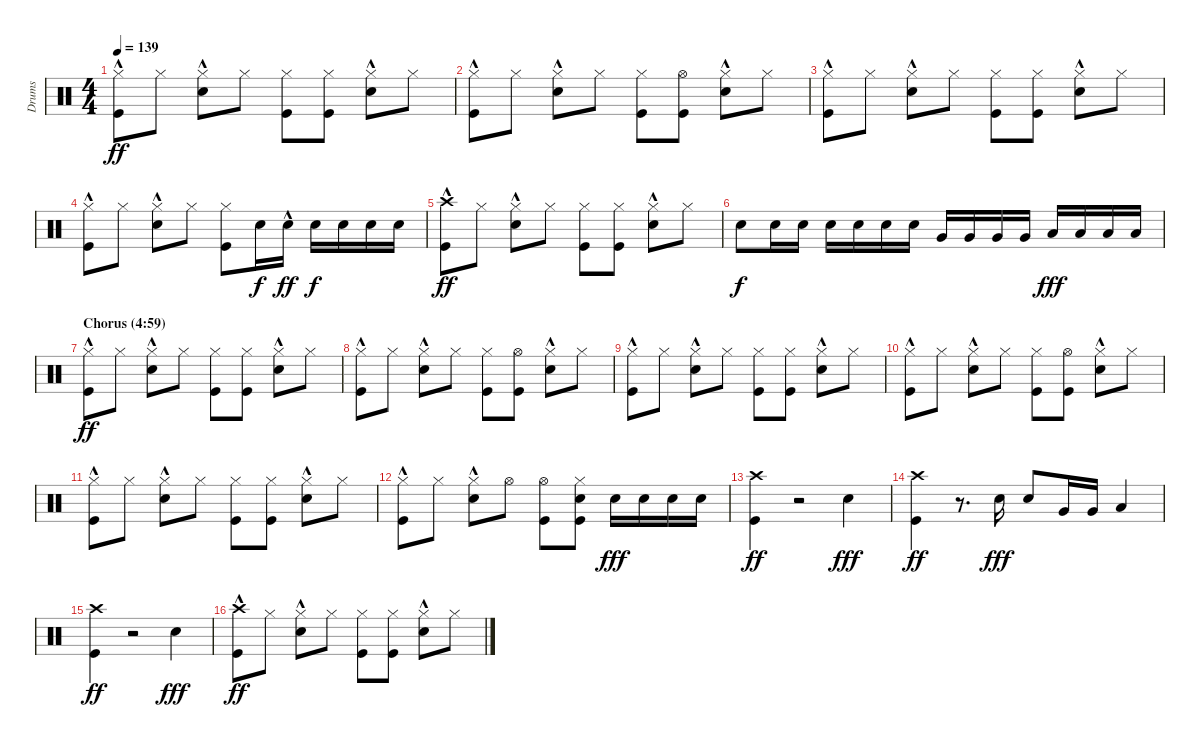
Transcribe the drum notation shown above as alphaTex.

\track ("Drums" "Drums") {instrument percussion}
\staff {score}
\articulation defaults
\ts (4 4)
\tempo 139
\clef neutral
\ks c
("Hi-Hat (closed)" "Kick (hit)"{hac}).8{dy ff} "Hi-Hat (closed)".8 ("Hi-Hat (closed)" "Snare (hit) 2"{hac}).8 "Hi-Hat (closed)".8 ("Hi-Hat (closed)" "Kick (hit)").8 ("Hi-Hat (closed)" "Kick (hit)").8 ("Hi-Hat (closed)" "Snare (hit) 2"{hac}).8 "Hi-Hat (closed)".8 |
("Hi-Hat (closed)" "Kick (hit)"{hac}).8 "Hi-Hat (closed)".8 ("Hi-Hat (closed)" "Snare (hit) 2"{hac}).8 "Hi-Hat (closed)".8 ("Hi-Hat (closed)" "Kick (hit)").8 ("Hi-Hat (open)" "Kick (hit)").8 ("Hi-Hat (closed)" "Snare (hit) 2"{hac}).8 "Hi-Hat (closed)".8 |
("Hi-Hat (closed)" "Kick (hit)"{hac}).8 "Hi-Hat (closed)".8 ("Hi-Hat (closed)" "Snare (hit) 2"{hac}).8 "Hi-Hat (closed)".8 ("Hi-Hat (closed)" "Kick (hit)").8 ("Hi-Hat (closed)" "Kick (hit)").8 ("Hi-Hat (closed)" "Snare (hit) 2"{hac}).8 "Hi-Hat (closed)".8 |
("Hi-Hat (closed)" "Kick (hit)"{hac}).8 "Hi-Hat (closed)".8 ("Hi-Hat (closed)" "Snare (hit) 2"{hac}).8 "Hi-Hat (closed)".8 ("Hi-Hat (closed)" "Kick (hit)").8 "Snare (hit) 2".16{dy f} "Snare (hit) 2"{hac}.16{dy ff} "Snare (hit) 2".16{dy f} "Snare (hit) 2".16 "Snare (hit) 2".16 "Snare (hit) 2".16 |
("Crash high (hit)" "Kick (hit)"{hac}).8{dy ff} "Hi-Hat (closed)".8 ("Hi-Hat (closed)" "Snare (hit) 2"{hac}).8 "Hi-Hat (closed)".8 ("Hi-Hat (closed)" "Kick (hit)").8 ("Hi-Hat (closed)" "Kick (hit)").8 ("Hi-Hat (closed)" "Snare (hit) 2"{hac}).8 "Hi-Hat (closed)".8 |
"Snare (hit) 2".8{dy f} "Snare (hit) 2".16 "Snare (hit) 2".16 "Snare (hit) 2".16 "Snare (hit) 2".16 "Snare (hit) 2".16 "Snare (hit) 2".16 "Very Low Tom (hit)".16 "Very Low Tom (hit)".16 "Very Low Tom (hit)".16 "Very Low Tom (hit)".16 "Low Floor Tom (hit)".16{dy fff} "Low Floor Tom (hit)".16 "Low Floor Tom (hit)".16 "Low Floor Tom (hit)".16 |
\section ("" "Chorus (4:59)")
("Hi-Hat (closed)" "Kick (hit)"{hac}).8{dy ff} "Hi-Hat (closed)".8 ("Hi-Hat (closed)" "Snare (hit) 2"{hac}).8 "Hi-Hat (closed)".8 ("Hi-Hat (closed)" "Kick (hit)").8 ("Hi-Hat (closed)" "Kick (hit)").8 ("Hi-Hat (closed)" "Snare (hit) 2"{hac}).8 "Hi-Hat (closed)".8 |
("Hi-Hat (closed)" "Kick (hit)"{hac}).8 "Hi-Hat (closed)".8 ("Hi-Hat (closed)" "Snare (hit) 2"{hac}).8 "Hi-Hat (closed)".8 ("Hi-Hat (closed)" "Kick (hit)").8 ("Hi-Hat (open)" "Kick (hit)").8 ("Hi-Hat (closed)" "Snare (hit) 2"{hac}).8 "Hi-Hat (closed)".8 |
("Hi-Hat (closed)" "Kick (hit)"{hac}).8 "Hi-Hat (closed)".8 ("Hi-Hat (closed)" "Snare (hit) 2"{hac}).8 "Hi-Hat (closed)".8 ("Hi-Hat (closed)" "Kick (hit)").8 ("Hi-Hat (closed)" "Kick (hit)").8 ("Hi-Hat (closed)" "Snare (hit) 2"{hac}).8 "Hi-Hat (closed)".8 |
("Hi-Hat (closed)" "Kick (hit)"{hac}).8 "Hi-Hat (closed)".8 ("Hi-Hat (closed)" "Snare (hit) 2"{hac}).8 "Hi-Hat (closed)".8 ("Hi-Hat (closed)" "Kick (hit)").8 ("Hi-Hat (open)" "Kick (hit)").8 ("Hi-Hat (closed)" "Snare (hit) 2"{hac}).8 "Hi-Hat (closed)".8 |
("Hi-Hat (closed)" "Kick (hit)"{hac}).8 "Hi-Hat (closed)".8 ("Hi-Hat (closed)" "Snare (hit) 2"{hac}).8 "Hi-Hat (closed)".8 ("Hi-Hat (closed)" "Kick (hit)").8 ("Hi-Hat (closed)" "Kick (hit)").8 ("Hi-Hat (closed)" "Snare (hit) 2"{hac}).8 "Hi-Hat (closed)".8 |
("Hi-Hat (closed)" "Kick (hit)"{hac}).8 "Hi-Hat (closed)".8 ("Hi-Hat (closed)" "Snare (hit) 2"{hac}).8 "Hi-Hat (open)".8 ("Hi-Hat (open)" "Kick (hit)").8 ("Hi-Hat (closed)" "Snare (hit) 2" "Kick (hit)").8 "Snare (hit) 2".16{dy fff} "Snare (hit) 2".16 "Snare (hit) 2".16 "Snare (hit) 2".16 |
("Crash high (hit)" "Kick (hit)").4{dy ff} r.2 "Snare (hit) 2".4{dy fff} |
("Crash high (hit)" "Kick (hit)").4{dy ff} r.8{d} "Snare (hit) 2".16{dy fff} "Snare (hit) 2".8 "Very Low Tom (hit)".16 "Very Low Tom (hit)".16 "Low Floor Tom (hit)".4 |
("Crash high (hit)" "Kick (hit)").4{dy ff} r.2 "Snare (hit) 2".4{dy fff} |
("Crash high (hit)" "Kick (hit)"{hac}).8{dy ff} "Hi-Hat (closed)".8 ("Hi-Hat (closed)" "Snare (hit) 2"{hac}).8 "Hi-Hat (closed)".8 ("Hi-Hat (closed)" "Kick (hit)").8 ("Hi-Hat (closed)" "Kick (hit)").8 ("Hi-Hat (closed)" "Snare (hit) 2"{hac}).8 "Hi-Hat (closed)".8
